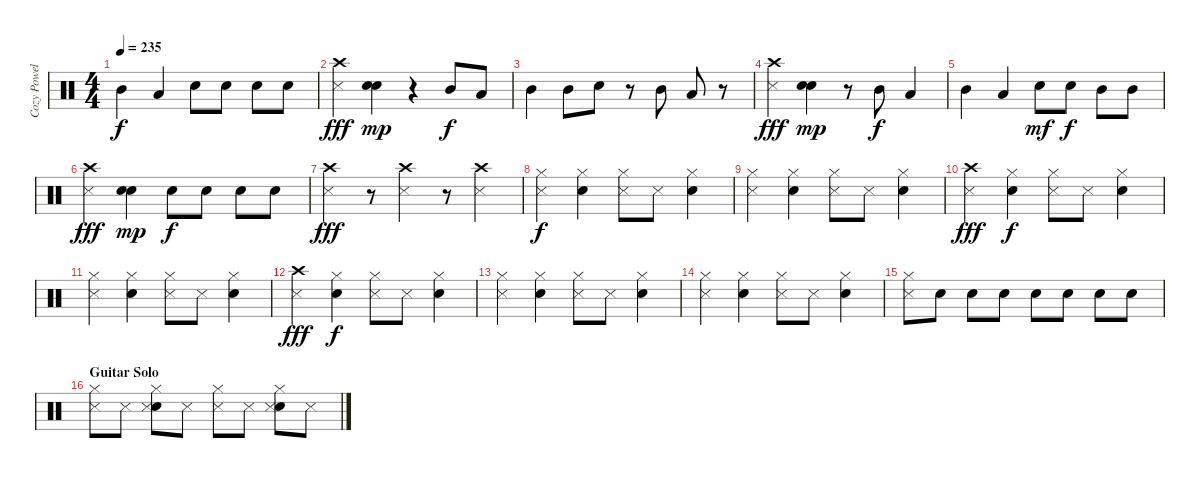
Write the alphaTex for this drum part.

\track ("Cozy Powell" "Cozy Powel") {instrument percussion}
\staff {score}
\articulation defaults
\ts (4 4)
\tempo 235
\clef neutral
\ks c "Mid Tom (hit)".4{dy f} "Low Tom (hit)".4 "Electric Snare (hit)".8 "Electric Snare (hit)".8 "Electric Snare (hit)".8 "Electric Snare (hit)".8
|
("Metronome (hit)" "Crash high (hit)").4{dy fff} ("Electric Snare (hit)" "Electric Snare (hit)").4{dy mp} r.4 "Mid Tom (hit)".8{dy f} "Low Tom (hit)".8 |
"Mid Tom (hit)".4 "Mid Tom (hit)".8 "Electric Snare (hit)".8 r.8 "Mid Tom (hit)".8 "Low Tom (hit)".8 r.8 |
("Metronome (hit)" "Crash high (hit)").4{dy fff} ("Electric Snare (hit)" "Electric Snare (hit)").4{dy mp} r.8 "Mid Tom (hit)".8{dy f} "Low Tom (hit)".4 |
"Mid Tom (hit)".4 "Low Tom (hit)".4 "Electric Snare (hit)".8{dy mf} "Electric Snare (hit)".8{dy f} "Mid Tom (hit)".8 "Mid Tom (hit)".8 |
("Crash high (hit)" "Metronome (hit)").4{dy fff} ("Electric Snare (hit)" "Electric Snare (hit)").4{dy mp} "Electric Snare (hit)".8{dy f} "Electric Snare (hit)".8 "Electric Snare (hit)".8 "Electric Snare (hit)".8 |
("Metronome (hit)" "Crash high (hit)").4{dy fff} r.8 ("Metronome (hit)" "Crash high (hit)").4 r.8 ("Crash high (hit)" "Metronome (hit)").4 |
("Metronome (hit)" "Hi-Hat (closed)").4{dy f} ("Electric Snare (hit)" "Hi-Hat (closed)").4 ("Metronome (hit)" "Hi-Hat (closed)").8 "Metronome (hit)".8 ("Hi-Hat (closed)" "Electric Snare (hit)").4 |
("Hi-Hat (closed)" "Metronome (hit)").4 ("Hi-Hat (closed)" "Electric Snare (hit)").4 ("Metronome (hit)" "Hi-Hat (closed)").8 "Metronome (hit)".8 ("Hi-Hat (closed)" "Electric Snare (hit)").4 |
("Crash high (hit)" "Metronome (hit)").4{dy fff} ("Electric Snare (hit)" "Hi-Hat (closed)").4{dy f} ("Hi-Hat (closed)" "Metronome (hit)").8 "Metronome (hit)".8 ("Electric Snare (hit)" "Hi-Hat (closed)").4 |
("Metronome (hit)" "Hi-Hat (closed)").4 ("Hi-Hat (closed)" "Electric Snare (hit)").4 ("Metronome (hit)" "Hi-Hat (closed)").8 "Metronome (hit)".8 ("Electric Snare (hit)" "Hi-Hat (closed)").4 |
("Metronome (hit)" "Crash high (hit)").4{dy fff} ("Hi-Hat (closed)" "Electric Snare (hit)").4{dy f} ("Metronome (hit)" "Hi-Hat (closed)").8 "Metronome (hit)".8 ("Electric Snare (hit)" "Hi-Hat (closed)").4 |
("Hi-Hat (closed)" "Metronome (hit)").4 ("Electric Snare (hit)" "Hi-Hat (closed)").4 ("Hi-Hat (closed)" "Metronome (hit)").8 "Metronome (hit)".8 ("Electric Snare (hit)" "Hi-Hat (closed)").4 |
("Hi-Hat (closed)" "Metronome (hit)").4 ("Hi-Hat (closed)" "Electric Snare (hit)").4 ("Hi-Hat (closed)" "Metronome (hit)").8 "Metronome (hit)".8 ("Hi-Hat (closed)" "Electric Snare (hit)").4 |
("Metronome (hit)" "Hi-Hat (closed)").8 "Electric Snare (hit)".8 "Electric Snare (hit)".8 "Electric Snare (hit)".8 "Electric Snare (hit)".8 "Electric Snare (hit)".8 "Electric Snare (hit)".8 "Electric Snare (hit)".8 |
\section ("" "Guitar Solo")
("Hi-Hat (closed)" "Metronome (hit)").8 "Metronome (hit)".8 ("Electric Snare (hit)" "Hi-Hat (closed)" "Metronome (hit)").8 "Metronome (hit)".8 ("Metronome (hit)" "Hi-Hat (closed)").8 "Metronome (hit)".8 ("Hi-Hat (closed)" "Electric Snare (hit)" "Metronome (hit)").8 "Metronome (hit)".8
